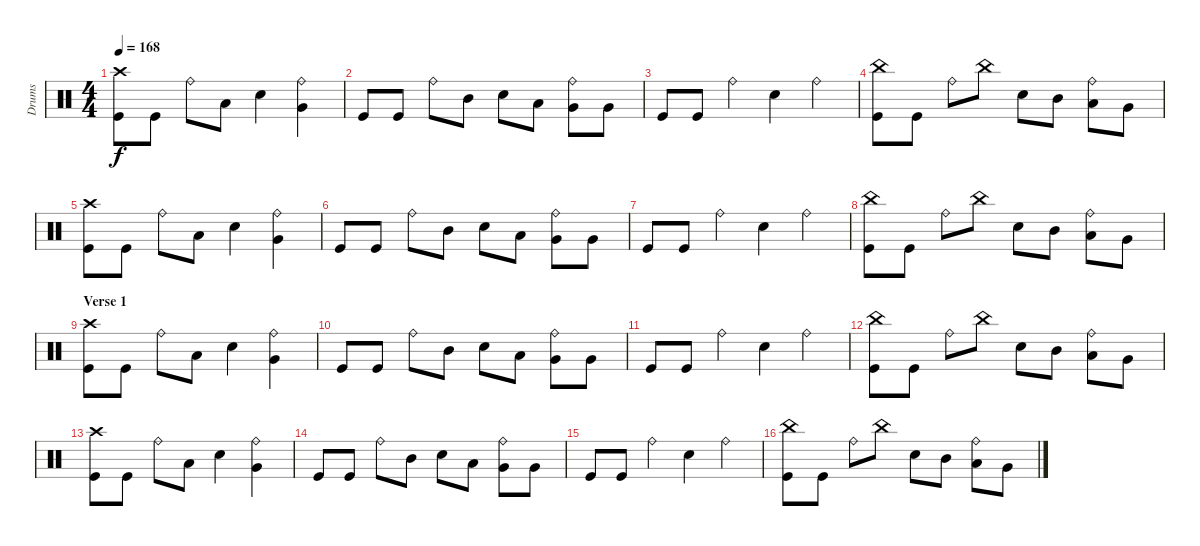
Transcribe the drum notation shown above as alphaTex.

\track ("Drums" "Drums") {instrument percussion}
\staff {score}
\articulation defaults
\ts (4 4)
\tempo 168
\clef neutral
\ks c
("Crash high (hit)" "Kick (hit)").8{dy f} "Kick (hit)".8 "Ride (bell)".8 "Low Tom (hit)".8 "Electric Snare (hit)".4 ("Ride (bell)" "Very Low Tom (hit)").4 |
"Kick (hit)".8 "Kick (hit)".8 "Ride (bell)".8 "Mid Tom (hit)".8 "Electric Snare (hit)".8 "Low Tom (hit)".8 ("Ride (bell)" "Very Low Tom (hit)").8 "Very Low Tom (hit)".8 |
"Kick (hit)".8 "Kick (hit)".8 "Ride (bell)".4 "Electric Snare (hit)".4 "Ride (bell)".4 |
("China (hit)" "Kick (hit)").8 "Kick (hit)".8 "Ride (bell)".8 "China (hit)".8 "Electric Snare (hit)".8 "Mid Tom (hit)".8 ("Ride (bell)" "Low Tom (hit)").8 "Very Low Tom (hit)".8 |
("Crash high (hit)" "Kick (hit)").8 "Kick (hit)".8 "Ride (bell)".8 "Low Tom (hit)".8 "Electric Snare (hit)".4 ("Ride (bell)" "Very Low Tom (hit)").4 |
"Kick (hit)".8 "Kick (hit)".8 "Ride (bell)".8 "Mid Tom (hit)".8 "Electric Snare (hit)".8 "Low Tom (hit)".8 ("Ride (bell)" "Very Low Tom (hit)").8 "Very Low Tom (hit)".8 |
"Kick (hit)".8 "Kick (hit)".8 "Ride (bell)".4 "Electric Snare (hit)".4 "Ride (bell)".4 |
("China (hit)" "Kick (hit)").8 "Kick (hit)".8 "Ride (bell)".8 "China (hit)".8 "Electric Snare (hit)".8 "Mid Tom (hit)".8 ("Ride (bell)" "Low Tom (hit)").8 "Very Low Tom (hit)".8 |
\section ("" "Verse 1")
("Crash high (hit)" "Kick (hit)").8 "Kick (hit)".8 "Ride (bell)".8 "Low Tom (hit)".8 "Electric Snare (hit)".4 ("Ride (bell)" "Very Low Tom (hit)").4 |
"Kick (hit)".8 "Kick (hit)".8 "Ride (bell)".8 "Mid Tom (hit)".8 "Electric Snare (hit)".8 "Low Tom (hit)".8 ("Ride (bell)" "Very Low Tom (hit)").8 "Very Low Tom (hit)".8 |
"Kick (hit)".8 "Kick (hit)".8 "Ride (bell)".4 "Electric Snare (hit)".4 "Ride (bell)".4 |
("China (hit)" "Kick (hit)").8 "Kick (hit)".8 "Ride (bell)".8 "China (hit)".8 "Electric Snare (hit)".8 "Mid Tom (hit)".8 ("Ride (bell)" "Low Tom (hit)").8 "Very Low Tom (hit)".8 |
("Crash high (hit)" "Kick (hit)").8 "Kick (hit)".8 "Ride (bell)".8 "Low Tom (hit)".8 "Electric Snare (hit)".4 ("Ride (bell)" "Very Low Tom (hit)").4 |
"Kick (hit)".8 "Kick (hit)".8 "Ride (bell)".8 "Mid Tom (hit)".8 "Electric Snare (hit)".8 "Low Tom (hit)".8 ("Ride (bell)" "Very Low Tom (hit)").8 "Very Low Tom (hit)".8 |
"Kick (hit)".8 "Kick (hit)".8 "Ride (bell)".4 "Electric Snare (hit)".4 "Ride (bell)".4 |
("China (hit)" "Kick (hit)").8 "Kick (hit)".8 "Ride (bell)".8 "China (hit)".8 "Electric Snare (hit)".8 "Mid Tom (hit)".8 ("Ride (bell)" "Low Tom (hit)").8 "Very Low Tom (hit)".8
